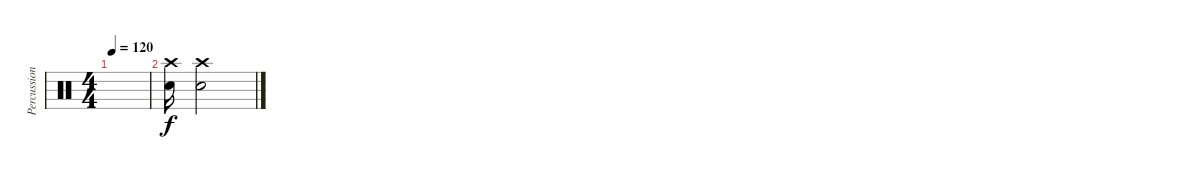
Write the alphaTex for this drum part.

\track ("Percussions" "Percussion") {instrument percussion}
\staff {score}
\articulation defaults
\ts (4 4)
\tempo 120
\clef neutral
\ks c
|
("Crash high (hit)" "Electric Snare (hit)").16 ("Electric Snare (hit)" "Crash high (hit)").2
